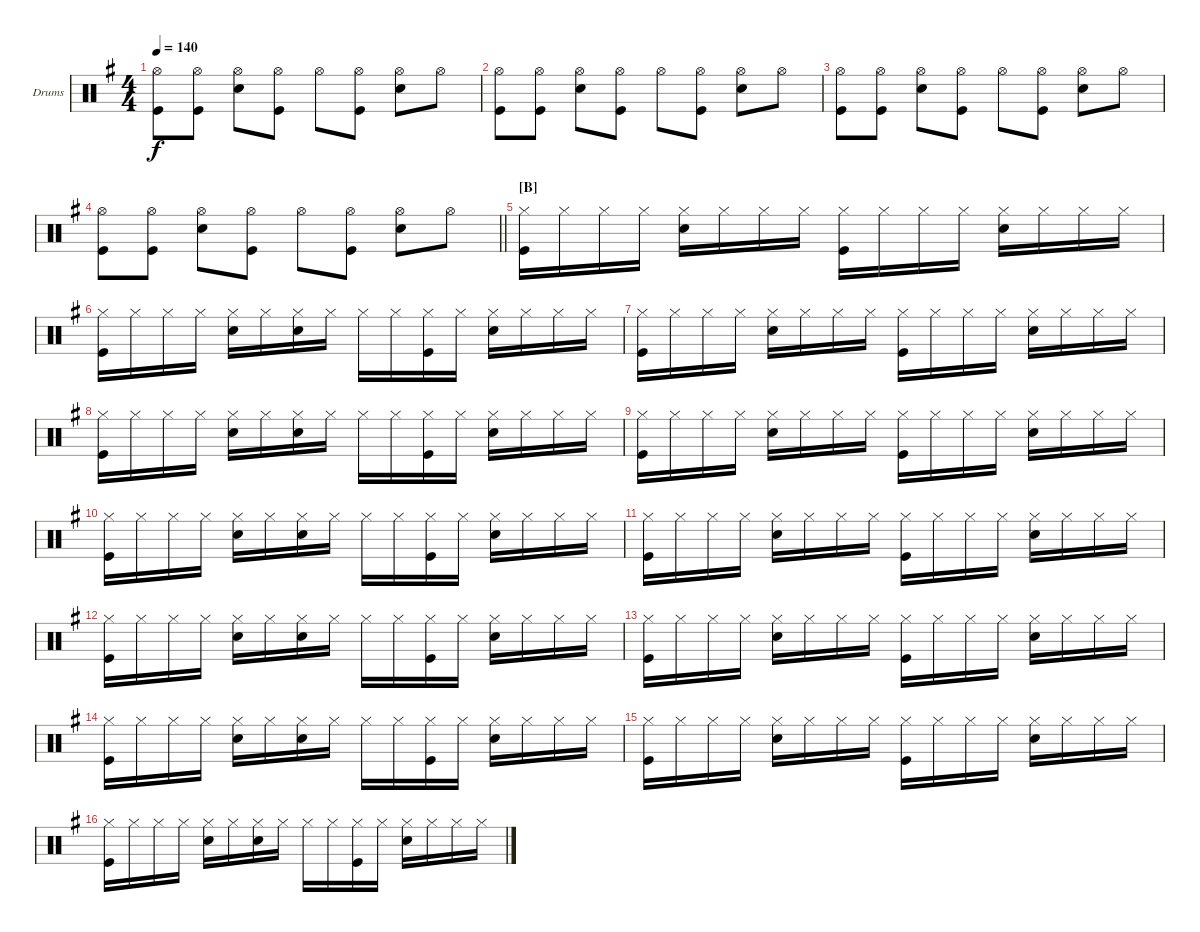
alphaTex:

\bracketExtendMode groupsimilarinstruments
\firstSystemTrackNameOrientation horizontal
\otherSystemsTrackNameOrientation horizontal
\track ("Fabrizio Moretti" "Drums") {instrument percussion}
\staff {score}
\articulation defaults
\ts (4 4)
\tempo 140
\clef neutral
\ks g
("Hi-Hat (open)" "Kick (hit)").8{dy f} ("Hi-Hat (open)" "Kick (hit)").8 ("Hi-Hat (open)" "Snare (hit) 2").8 ("Hi-Hat (open)" "Kick (hit)").8 "Hi-Hat (open)".8 ("Hi-Hat (open)" "Kick (hit)").8 ("Hi-Hat (open)" "Snare (hit) 2").8 "Hi-Hat (open)".8 |
("Hi-Hat (open)" "Kick (hit)").8 ("Hi-Hat (open)" "Kick (hit)").8 ("Hi-Hat (open)" "Snare (hit) 2").8 ("Hi-Hat (open)" "Kick (hit)").8 "Hi-Hat (open)".8 ("Hi-Hat (open)" "Kick (hit)").8 ("Hi-Hat (open)" "Snare (hit) 2").8 "Hi-Hat (open)".8 |
("Hi-Hat (open)" "Kick (hit)").8 ("Hi-Hat (open)" "Kick (hit)").8 ("Hi-Hat (open)" "Snare (hit) 2").8 ("Hi-Hat (open)" "Kick (hit)").8 "Hi-Hat (open)".8 ("Hi-Hat (open)" "Kick (hit)").8 ("Hi-Hat (open)" "Snare (hit) 2").8 "Hi-Hat (open)".8 |
\barLineRight lightlight
("Hi-Hat (open)" "Kick (hit)").8 ("Hi-Hat (open)" "Kick (hit)").8 ("Hi-Hat (open)" "Snare (hit) 2").8 ("Hi-Hat (open)" "Kick (hit)").8 "Hi-Hat (open)".8 ("Hi-Hat (open)" "Kick (hit)").8 ("Hi-Hat (open)" "Snare (hit) 2").8 "Hi-Hat (open)".8 |
\section ("B" "")
("Hi-Hat (closed)" "Kick (hit)").16 "Hi-Hat (closed)".16 "Hi-Hat (closed)".16 "Hi-Hat (closed)".16 ("Snare (hit) 2" "Hi-Hat (closed)").16 "Hi-Hat (closed)".16 "Hi-Hat (closed)".16 "Hi-Hat (closed)".16 ("Hi-Hat (closed)" "Kick (hit)").16 "Hi-Hat (closed)".16 "Hi-Hat (closed)".16 "Hi-Hat (closed)".16 ("Snare (hit) 2" "Hi-Hat (closed)").16 "Hi-Hat (closed)".16 "Hi-Hat (closed)".16 "Hi-Hat (closed)".16 |
("Hi-Hat (closed)" "Kick (hit)").16 "Hi-Hat (closed)".16 "Hi-Hat (closed)".16 "Hi-Hat (closed)".16 ("Snare (hit) 2" "Hi-Hat (closed)").16 "Hi-Hat (closed)".16 ("Snare (hit) 2" "Hi-Hat (closed)").16 "Hi-Hat (closed)".16 "Hi-Hat (closed)".16 "Hi-Hat (closed)".16 ("Hi-Hat (closed)" "Kick (hit)").16 "Hi-Hat (closed)".16 ("Snare (hit) 2" "Hi-Hat (closed)").16 "Hi-Hat (closed)".16 "Hi-Hat (closed)".16 "Hi-Hat (closed)".16 |
("Hi-Hat (closed)" "Kick (hit)").16 "Hi-Hat (closed)".16 "Hi-Hat (closed)".16 "Hi-Hat (closed)".16 ("Snare (hit) 2" "Hi-Hat (closed)").16 "Hi-Hat (closed)".16 "Hi-Hat (closed)".16 "Hi-Hat (closed)".16 ("Hi-Hat (closed)" "Kick (hit)").16 "Hi-Hat (closed)".16 "Hi-Hat (closed)".16 "Hi-Hat (closed)".16 ("Snare (hit) 2" "Hi-Hat (closed)").16 "Hi-Hat (closed)".16 "Hi-Hat (closed)".16 "Hi-Hat (closed)".16 |
("Hi-Hat (closed)" "Kick (hit)").16 "Hi-Hat (closed)".16 "Hi-Hat (closed)".16 "Hi-Hat (closed)".16 ("Snare (hit) 2" "Hi-Hat (closed)").16 "Hi-Hat (closed)".16 ("Snare (hit) 2" "Hi-Hat (closed)").16 "Hi-Hat (closed)".16 "Hi-Hat (closed)".16 "Hi-Hat (closed)".16 ("Hi-Hat (closed)" "Kick (hit)").16 "Hi-Hat (closed)".16 ("Snare (hit) 2" "Hi-Hat (closed)").16 "Hi-Hat (closed)".16 "Hi-Hat (closed)".16 "Hi-Hat (closed)".16 |
("Hi-Hat (closed)" "Kick (hit)").16 "Hi-Hat (closed)".16 "Hi-Hat (closed)".16 "Hi-Hat (closed)".16 ("Snare (hit) 2" "Hi-Hat (closed)").16 "Hi-Hat (closed)".16 "Hi-Hat (closed)".16 "Hi-Hat (closed)".16 ("Hi-Hat (closed)" "Kick (hit)").16 "Hi-Hat (closed)".16 "Hi-Hat (closed)".16 "Hi-Hat (closed)".16 ("Snare (hit) 2" "Hi-Hat (closed)").16 "Hi-Hat (closed)".16 "Hi-Hat (closed)".16 "Hi-Hat (closed)".16 |
("Hi-Hat (closed)" "Kick (hit)").16 "Hi-Hat (closed)".16 "Hi-Hat (closed)".16 "Hi-Hat (closed)".16 ("Snare (hit) 2" "Hi-Hat (closed)").16 "Hi-Hat (closed)".16 ("Snare (hit) 2" "Hi-Hat (closed)").16 "Hi-Hat (closed)".16 "Hi-Hat (closed)".16 "Hi-Hat (closed)".16 ("Hi-Hat (closed)" "Kick (hit)").16 "Hi-Hat (closed)".16 ("Snare (hit) 2" "Hi-Hat (closed)").16 "Hi-Hat (closed)".16 "Hi-Hat (closed)".16 "Hi-Hat (closed)".16 |
("Hi-Hat (closed)" "Kick (hit)").16 "Hi-Hat (closed)".16 "Hi-Hat (closed)".16 "Hi-Hat (closed)".16 ("Snare (hit) 2" "Hi-Hat (closed)").16 "Hi-Hat (closed)".16 "Hi-Hat (closed)".16 "Hi-Hat (closed)".16 ("Hi-Hat (closed)" "Kick (hit)").16 "Hi-Hat (closed)".16 "Hi-Hat (closed)".16 "Hi-Hat (closed)".16 ("Snare (hit) 2" "Hi-Hat (closed)").16 "Hi-Hat (closed)".16 "Hi-Hat (closed)".16 "Hi-Hat (closed)".16 |
("Hi-Hat (closed)" "Kick (hit)").16 "Hi-Hat (closed)".16 "Hi-Hat (closed)".16 "Hi-Hat (closed)".16 ("Snare (hit) 2" "Hi-Hat (closed)").16 "Hi-Hat (closed)".16 ("Snare (hit) 2" "Hi-Hat (closed)").16 "Hi-Hat (closed)".16 "Hi-Hat (closed)".16 "Hi-Hat (closed)".16 ("Hi-Hat (closed)" "Kick (hit)").16 "Hi-Hat (closed)".16 ("Snare (hit) 2" "Hi-Hat (closed)").16 "Hi-Hat (closed)".16 "Hi-Hat (closed)".16 "Hi-Hat (closed)".16 |
("Hi-Hat (closed)" "Kick (hit)").16 "Hi-Hat (closed)".16 "Hi-Hat (closed)".16 "Hi-Hat (closed)".16 ("Snare (hit) 2" "Hi-Hat (closed)").16 "Hi-Hat (closed)".16 "Hi-Hat (closed)".16 "Hi-Hat (closed)".16 ("Hi-Hat (closed)" "Kick (hit)").16 "Hi-Hat (closed)".16 "Hi-Hat (closed)".16 "Hi-Hat (closed)".16 ("Snare (hit) 2" "Hi-Hat (closed)").16 "Hi-Hat (closed)".16 "Hi-Hat (closed)".16 "Hi-Hat (closed)".16 |
("Hi-Hat (closed)" "Kick (hit)").16 "Hi-Hat (closed)".16 "Hi-Hat (closed)".16 "Hi-Hat (closed)".16 ("Snare (hit) 2" "Hi-Hat (closed)").16 "Hi-Hat (closed)".16 ("Snare (hit) 2" "Hi-Hat (closed)").16 "Hi-Hat (closed)".16 "Hi-Hat (closed)".16 "Hi-Hat (closed)".16 ("Hi-Hat (closed)" "Kick (hit)").16 "Hi-Hat (closed)".16 ("Snare (hit) 2" "Hi-Hat (closed)").16 "Hi-Hat (closed)".16 "Hi-Hat (closed)".16 "Hi-Hat (closed)".16 |
("Hi-Hat (closed)" "Kick (hit)").16 "Hi-Hat (closed)".16 "Hi-Hat (closed)".16 "Hi-Hat (closed)".16 ("Snare (hit) 2" "Hi-Hat (closed)").16 "Hi-Hat (closed)".16 "Hi-Hat (closed)".16 "Hi-Hat (closed)".16 ("Hi-Hat (closed)" "Kick (hit)").16 "Hi-Hat (closed)".16 "Hi-Hat (closed)".16 "Hi-Hat (closed)".16 ("Snare (hit) 2" "Hi-Hat (closed)").16 "Hi-Hat (closed)".16 "Hi-Hat (closed)".16 "Hi-Hat (closed)".16 |
("Hi-Hat (closed)" "Kick (hit)").16 "Hi-Hat (closed)".16 "Hi-Hat (closed)".16 "Hi-Hat (closed)".16 ("Snare (hit) 2" "Hi-Hat (closed)").16 "Hi-Hat (closed)".16 ("Snare (hit) 2" "Hi-Hat (closed)").16 "Hi-Hat (closed)".16 "Hi-Hat (closed)".16 "Hi-Hat (closed)".16 ("Hi-Hat (closed)" "Kick (hit)").16 "Hi-Hat (closed)".16 ("Snare (hit) 2" "Hi-Hat (closed)").16 "Hi-Hat (closed)".16 "Hi-Hat (closed)".16 "Hi-Hat (closed)".16
